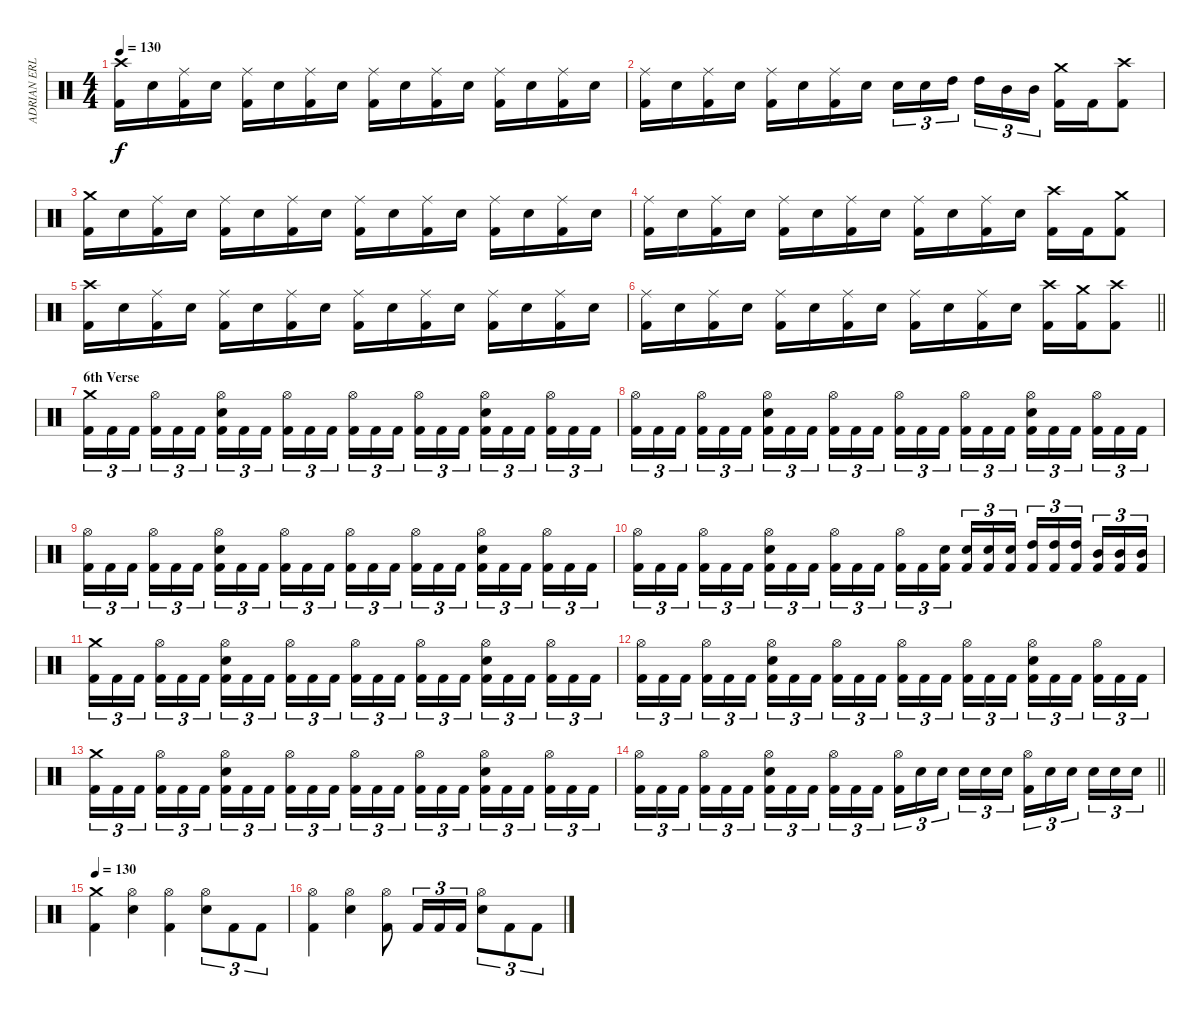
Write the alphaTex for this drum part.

\track ("ADRIAN ERLANDSSON" "ADRIAN ERL") {instrument percussion}
\staff {score}
\articulation defaults
\ts (4 4)
\tempo 130
\clef neutral
\ks c
("Kick (hit) 2" "Crash high (hit)").16{dy f} "Electric Snare (hit)".16 ("Kick (hit) 2" "Ride (middle)").16 "Electric Snare (hit)".16 ("Kick (hit) 2" "Ride (middle)").16 "Electric Snare (hit)".16 ("Kick (hit) 2" "Ride (middle)").16 "Electric Snare (hit)".16 ("Kick (hit) 2" "Ride (middle)").16 "Electric Snare (hit)".16 ("Kick (hit) 2" "Ride (middle)").16 "Electric Snare (hit)".16 ("Kick (hit) 2" "Ride (middle)").16 "Electric Snare (hit)".16 ("Kick (hit) 2" "Ride (middle)").16 "Electric Snare (hit)".16 |
("Kick (hit) 2" "Ride (middle)").16 "Electric Snare (hit)".16 ("Kick (hit) 2" "Ride (middle)").16 "Electric Snare (hit)".16 ("Kick (hit) 2" "Ride (middle)").16 "Electric Snare (hit)".16 ("Kick (hit) 2" "Ride (middle)").16 "Electric Snare (hit)".16 "Electric Snare (hit)".16{tu (3 2)} "Electric Snare (hit)".16{tu (3 2)} "High Tom (hit)".16{tu (3 2) beam splitsecondary} "High Tom (hit)".16{tu (3 2)} "Mid Tom (hit)".16{tu (3 2)} "Mid Tom (hit)".16{tu (3 2)} ("Kick (hit) 2" "Crash medium (hit)").16 "Kick (hit) 2".16 ("Kick (hit) 2" "Crash high (hit)").8 |
("Kick (hit) 2" "Crash medium (hit)").16 "Electric Snare (hit)".16 ("Kick (hit) 2" "Ride (middle)").16 "Electric Snare (hit)".16 ("Kick (hit) 2" "Ride (middle)").16 "Electric Snare (hit)".16 ("Kick (hit) 2" "Ride (middle)").16 "Electric Snare (hit)".16 ("Kick (hit) 2" "Ride (middle)").16 "Electric Snare (hit)".16 ("Kick (hit) 2" "Ride (middle)").16 "Electric Snare (hit)".16 ("Kick (hit) 2" "Ride (middle)").16 "Electric Snare (hit)".16 ("Kick (hit) 2" "Ride (middle)").16 "Electric Snare (hit)".16 |
("Kick (hit) 2" "Ride (middle)").16 "Electric Snare (hit)".16 ("Kick (hit) 2" "Ride (middle)").16 "Electric Snare (hit)".16 ("Kick (hit) 2" "Ride (middle)").16 "Electric Snare (hit)".16 ("Kick (hit) 2" "Ride (middle)").16 "Electric Snare (hit)".16 ("Kick (hit) 2" "Ride (middle)").16 "Electric Snare (hit)".16 ("Kick (hit) 2" "Ride (middle)").16 "Electric Snare (hit)".16 ("Kick (hit) 2" "Crash high (hit)").16 "Kick (hit) 2".16 ("Kick (hit) 2" "Crash medium (hit)").8 |
("Kick (hit) 2" "Crash high (hit)").16 "Electric Snare (hit)".16 ("Kick (hit) 2" "Ride (middle)").16 "Electric Snare (hit)".16 ("Kick (hit) 2" "Ride (middle)").16 "Electric Snare (hit)".16 ("Kick (hit) 2" "Ride (middle)").16 "Electric Snare (hit)".16 ("Kick (hit) 2" "Ride (middle)").16 "Electric Snare (hit)".16 ("Kick (hit) 2" "Ride (middle)").16 "Electric Snare (hit)".16 ("Kick (hit) 2" "Ride (middle)").16 "Electric Snare (hit)".16 ("Kick (hit) 2" "Ride (middle)").16 "Electric Snare (hit)".16 |
\barLineRight lightlight
("Kick (hit) 2" "Ride (middle)").16 "Electric Snare (hit)".16 ("Kick (hit) 2" "Ride (middle)").16 "Electric Snare (hit)".16 ("Kick (hit) 2" "Ride (middle)").16 "Electric Snare (hit)".16 ("Kick (hit) 2" "Ride (middle)").16 "Electric Snare (hit)".16 ("Kick (hit) 2" "Ride (middle)").16 "Electric Snare (hit)".16 ("Kick (hit) 2" "Ride (middle)").16 "Electric Snare (hit)".16 ("Kick (hit) 2" "Crash high (hit)").16 ("Kick (hit) 2" "Crash medium (hit)").16 ("Kick (hit) 2" "Crash high (hit)").8 |
\section ("" "6th Verse")
("Kick (hit) 2" "Crash medium (hit)").16{tu (3 2)} "Kick (hit) 2".16{tu (3 2)} "Kick (hit) 2".16{tu (3 2) beam splitsecondary} ("Kick (hit) 2" "Hi-Hat (open)").16{tu (3 2)} "Kick (hit) 2".16{tu (3 2)} "Kick (hit) 2".16{tu (3 2)} ("Kick (hit) 2" "Electric Snare (hit)" "Hi-Hat (open)").16{tu (3 2)} "Kick (hit) 2".16{tu (3 2)} "Kick (hit) 2".16{tu (3 2) beam splitsecondary} ("Kick (hit) 2" "Hi-Hat (open)").16{tu (3 2)} "Kick (hit) 2".16{tu (3 2)} "Kick (hit) 2".16{tu (3 2)} ("Kick (hit) 2" "Hi-Hat (open)").16{tu (3 2)} "Kick (hit) 2".16{tu (3 2)} "Kick (hit) 2".16{tu (3 2) beam splitsecondary} ("Kick (hit) 2" "Hi-Hat (open)").16{tu (3 2)} "Kick (hit) 2".16{tu (3 2)} "Kick (hit) 2".16{tu (3 2)} ("Kick (hit) 2" "Electric Snare (hit)" "Hi-Hat (open)").16{tu (3 2)} "Kick (hit) 2".16{tu (3 2)} "Kick (hit) 2".16{tu (3 2) beam splitsecondary} ("Kick (hit) 2" "Hi-Hat (open)").16{tu (3 2)} "Kick (hit) 2".16{tu (3 2)} "Kick (hit) 2".16{tu (3 2)} |
("Kick (hit) 2" "Hi-Hat (open)").16{tu (3 2)} "Kick (hit) 2".16{tu (3 2)} "Kick (hit) 2".16{tu (3 2) beam splitsecondary} ("Kick (hit) 2" "Hi-Hat (open)").16{tu (3 2)} "Kick (hit) 2".16{tu (3 2)} "Kick (hit) 2".16{tu (3 2)} ("Kick (hit) 2" "Electric Snare (hit)" "Hi-Hat (open)").16{tu (3 2)} "Kick (hit) 2".16{tu (3 2)} "Kick (hit) 2".16{tu (3 2) beam splitsecondary} ("Kick (hit) 2" "Hi-Hat (open)").16{tu (3 2)} "Kick (hit) 2".16{tu (3 2)} "Kick (hit) 2".16{tu (3 2)} ("Kick (hit) 2" "Hi-Hat (open)").16{tu (3 2)} "Kick (hit) 2".16{tu (3 2)} "Kick (hit) 2".16{tu (3 2) beam splitsecondary} ("Kick (hit) 2" "Hi-Hat (open)").16{tu (3 2)} "Kick (hit) 2".16{tu (3 2)} "Kick (hit) 2".16{tu (3 2)} ("Kick (hit) 2" "Electric Snare (hit)" "Hi-Hat (open)").16{tu (3 2)} "Kick (hit) 2".16{tu (3 2)} "Kick (hit) 2".16{tu (3 2) beam splitsecondary} ("Kick (hit) 2" "Hi-Hat (open)").16{tu (3 2)} "Kick (hit) 2".16{tu (3 2)} "Kick (hit) 2".16{tu (3 2)} |
("Kick (hit) 2" "Hi-Hat (open)").16{tu (3 2)} "Kick (hit) 2".16{tu (3 2)} "Kick (hit) 2".16{tu (3 2) beam splitsecondary} ("Kick (hit) 2" "Hi-Hat (open)").16{tu (3 2)} "Kick (hit) 2".16{tu (3 2)} "Kick (hit) 2".16{tu (3 2)} ("Kick (hit) 2" "Electric Snare (hit)" "Hi-Hat (open)").16{tu (3 2)} "Kick (hit) 2".16{tu (3 2)} "Kick (hit) 2".16{tu (3 2) beam splitsecondary} ("Kick (hit) 2" "Hi-Hat (open)").16{tu (3 2)} "Kick (hit) 2".16{tu (3 2)} "Kick (hit) 2".16{tu (3 2)} ("Kick (hit) 2" "Hi-Hat (open)").16{tu (3 2)} "Kick (hit) 2".16{tu (3 2)} "Kick (hit) 2".16{tu (3 2) beam splitsecondary} ("Kick (hit) 2" "Hi-Hat (open)").16{tu (3 2)} "Kick (hit) 2".16{tu (3 2)} "Kick (hit) 2".16{tu (3 2)} ("Kick (hit) 2" "Electric Snare (hit)" "Hi-Hat (open)").16{tu (3 2)} "Kick (hit) 2".16{tu (3 2)} "Kick (hit) 2".16{tu (3 2) beam splitsecondary} ("Kick (hit) 2" "Hi-Hat (open)").16{tu (3 2)} "Kick (hit) 2".16{tu (3 2)} "Kick (hit) 2".16{tu (3 2)} |
("Kick (hit) 2" "Hi-Hat (open)").16{tu (3 2)} "Kick (hit) 2".16{tu (3 2)} "Kick (hit) 2".16{tu (3 2) beam splitsecondary} ("Kick (hit) 2" "Hi-Hat (open)").16{tu (3 2)} "Kick (hit) 2".16{tu (3 2)} "Kick (hit) 2".16{tu (3 2)} ("Kick (hit) 2" "Electric Snare (hit)" "Hi-Hat (open)").16{tu (3 2)} "Kick (hit) 2".16{tu (3 2)} "Kick (hit) 2".16{tu (3 2) beam splitsecondary} ("Kick (hit) 2" "Hi-Hat (open)").16{tu (3 2)} "Kick (hit) 2".16{tu (3 2)} "Kick (hit) 2".16{tu (3 2)} ("Kick (hit) 2" "Hi-Hat (open)").16{tu (3 2)} "Kick (hit) 2".16{tu (3 2)} ("Kick (hit) 2" "Electric Snare (hit)").16{tu (3 2) beam splitsecondary} ("Kick (hit) 2" "Electric Snare (hit)").16{tu (3 2)} ("Kick (hit) 2" "Electric Snare (hit)").16{tu (3 2)} ("Kick (hit) 2" "Electric Snare (hit)").16{tu (3 2)} ("Kick (hit) 2" "High Tom (hit)").16{tu (3 2)} ("Kick (hit) 2" "High Tom (hit)").16{tu (3 2)} ("Kick (hit) 2" "High Tom (hit)").16{tu (3 2) beam splitsecondary} ("Kick (hit) 2" "Mid Tom (hit)").16{tu (3 2)} ("Kick (hit) 2" "Mid Tom (hit)").16{tu (3 2)} ("Kick (hit) 2" "Mid Tom (hit)").16{tu (3 2)} |
("Kick (hit) 2" "Crash medium (hit)").16{tu (3 2)} "Kick (hit) 2".16{tu (3 2)} "Kick (hit) 2".16{tu (3 2) beam splitsecondary} ("Kick (hit) 2" "Hi-Hat (open)").16{tu (3 2)} "Kick (hit) 2".16{tu (3 2)} "Kick (hit) 2".16{tu (3 2)} ("Kick (hit) 2" "Electric Snare (hit)" "Hi-Hat (open)").16{tu (3 2)} "Kick (hit) 2".16{tu (3 2)} "Kick (hit) 2".16{tu (3 2) beam splitsecondary} ("Kick (hit) 2" "Hi-Hat (open)").16{tu (3 2)} "Kick (hit) 2".16{tu (3 2)} "Kick (hit) 2".16{tu (3 2)} ("Kick (hit) 2" "Hi-Hat (open)").16{tu (3 2)} "Kick (hit) 2".16{tu (3 2)} "Kick (hit) 2".16{tu (3 2) beam splitsecondary} ("Kick (hit) 2" "Hi-Hat (open)").16{tu (3 2)} "Kick (hit) 2".16{tu (3 2)} "Kick (hit) 2".16{tu (3 2)} ("Kick (hit) 2" "Electric Snare (hit)" "Hi-Hat (open)").16{tu (3 2)} "Kick (hit) 2".16{tu (3 2)} "Kick (hit) 2".16{tu (3 2) beam splitsecondary} ("Kick (hit) 2" "Hi-Hat (open)").16{tu (3 2)} "Kick (hit) 2".16{tu (3 2)} "Kick (hit) 2".16{tu (3 2)} |
("Kick (hit) 2" "Hi-Hat (open)").16{tu (3 2)} "Kick (hit) 2".16{tu (3 2)} "Kick (hit) 2".16{tu (3 2) beam splitsecondary} ("Kick (hit) 2" "Hi-Hat (open)").16{tu (3 2)} "Kick (hit) 2".16{tu (3 2)} "Kick (hit) 2".16{tu (3 2)} ("Kick (hit) 2" "Electric Snare (hit)" "Hi-Hat (open)").16{tu (3 2)} "Kick (hit) 2".16{tu (3 2)} "Kick (hit) 2".16{tu (3 2) beam splitsecondary} ("Kick (hit) 2" "Hi-Hat (open)").16{tu (3 2)} "Kick (hit) 2".16{tu (3 2)} "Kick (hit) 2".16{tu (3 2)} ("Kick (hit) 2" "Hi-Hat (open)").16{tu (3 2)} "Kick (hit) 2".16{tu (3 2)} "Kick (hit) 2".16{tu (3 2) beam splitsecondary} ("Kick (hit) 2" "Hi-Hat (open)").16{tu (3 2)} "Kick (hit) 2".16{tu (3 2)} "Kick (hit) 2".16{tu (3 2)} ("Kick (hit) 2" "Electric Snare (hit)" "Hi-Hat (open)").16{tu (3 2)} "Kick (hit) 2".16{tu (3 2)} "Kick (hit) 2".16{tu (3 2) beam splitsecondary} ("Kick (hit) 2" "Hi-Hat (open)").16{tu (3 2)} "Kick (hit) 2".16{tu (3 2)} "Kick (hit) 2".16{tu (3 2)} |
("Kick (hit) 2" "Crash medium (hit)").16{tu (3 2)} "Kick (hit) 2".16{tu (3 2)} "Kick (hit) 2".16{tu (3 2) beam splitsecondary} ("Kick (hit) 2" "Hi-Hat (open)").16{tu (3 2)} "Kick (hit) 2".16{tu (3 2)} "Kick (hit) 2".16{tu (3 2)} ("Kick (hit) 2" "Electric Snare (hit)" "Hi-Hat (open)").16{tu (3 2)} "Kick (hit) 2".16{tu (3 2)} "Kick (hit) 2".16{tu (3 2) beam splitsecondary} ("Kick (hit) 2" "Hi-Hat (open)").16{tu (3 2)} "Kick (hit) 2".16{tu (3 2)} "Kick (hit) 2".16{tu (3 2)} ("Kick (hit) 2" "Hi-Hat (open)").16{tu (3 2)} "Kick (hit) 2".16{tu (3 2)} "Kick (hit) 2".16{tu (3 2) beam splitsecondary} ("Kick (hit) 2" "Hi-Hat (open)").16{tu (3 2)} "Kick (hit) 2".16{tu (3 2)} "Kick (hit) 2".16{tu (3 2)} ("Kick (hit) 2" "Electric Snare (hit)" "Hi-Hat (open)").16{tu (3 2)} "Kick (hit) 2".16{tu (3 2)} "Kick (hit) 2".16{tu (3 2) beam splitsecondary} ("Kick (hit) 2" "Hi-Hat (open)").16{tu (3 2)} "Kick (hit) 2".16{tu (3 2)} "Kick (hit) 2".16{tu (3 2)} |
\barLineRight lightlight
("Kick (hit) 2" "Hi-Hat (open)").16{tu (3 2)} "Kick (hit) 2".16{tu (3 2)} "Kick (hit) 2".16{tu (3 2) beam splitsecondary} ("Kick (hit) 2" "Hi-Hat (open)").16{tu (3 2)} "Kick (hit) 2".16{tu (3 2)} "Kick (hit) 2".16{tu (3 2)} ("Kick (hit) 2" "Electric Snare (hit)" "Hi-Hat (open)").16{tu (3 2)} "Kick (hit) 2".16{tu (3 2)} "Kick (hit) 2".16{tu (3 2) beam splitsecondary} ("Kick (hit) 2" "Hi-Hat (open)").16{tu (3 2)} "Kick (hit) 2".16{tu (3 2)} "Kick (hit) 2".16{tu (3 2)} ("Kick (hit) 2" "Hi-Hat (open)").16{tu (3 2)} "Electric Snare (hit)".16{tu (3 2)} "Electric Snare (hit)".16{tu (3 2) beam splitsecondary} "Electric Snare (hit)".16{tu (3 2)} "Electric Snare (hit)".16{tu (3 2)} "Electric Snare (hit)".16{tu (3 2)} ("Kick (hit) 2" "Hi-Hat (open)").16{tu (3 2)} "Electric Snare (hit)".16{tu (3 2)} "Electric Snare (hit)".16{tu (3 2) beam splitsecondary} "Electric Snare (hit)".16{tu (3 2)} "Electric Snare (hit)".16{tu (3 2)} "Electric Snare (hit)".16{tu (3 2)} |
\tempo 130
("Kick (hit) 2" "Crash medium (hit)").4 ("Electric Snare (hit)" "Hi-Hat (open)").4 ("Kick (hit) 2" "Hi-Hat (open)").4 ("Electric Snare (hit)" "Hi-Hat (open)").8{tu (3 2)} "Kick (hit) 2".8{tu (3 2)} "Kick (hit) 2".8{tu (3 2)} |
("Kick (hit) 2" "Hi-Hat (open)").4 ("Electric Snare (hit)" "Hi-Hat (open)").4 ("Kick (hit) 2" "Hi-Hat (open)").8 "Kick (hit) 2".16{tu (3 2)} "Kick (hit) 2".16{tu (3 2)} "Kick (hit) 2".16{tu (3 2)} ("Electric Snare (hit)" "Hi-Hat (open)").8{tu (3 2)} "Kick (hit) 2".8{tu (3 2)} "Kick (hit) 2".8{tu (3 2)}
